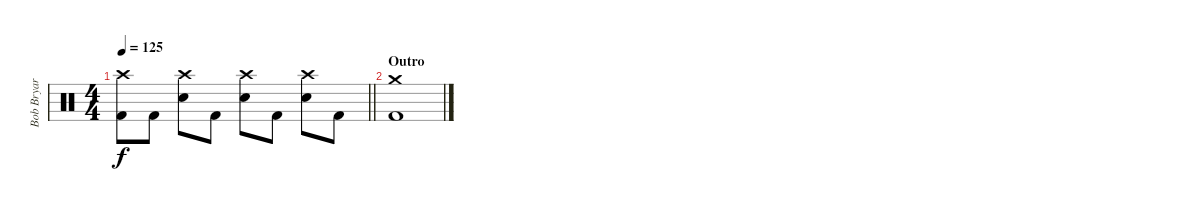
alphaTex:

\track ("Bob Bryar" "Bob Bryar") {instrument percussion}
\staff {score}
\articulation defaults
\ts (4 4)
\tempo 125
\clef neutral
\barLineRight lightlight
\ks c
("Crash high (hit)" "Kick (hit) 2").8{dy f} "Kick (hit) 2".8 ("Crash high (hit)" "Electric Snare (hit)").8 "Kick (hit) 2".8 ("Crash high (hit)" "Electric Snare (hit)").8 "Kick (hit) 2".8 ("Crash high (hit)" "Electric Snare (hit)").8 "Kick (hit) 2".8 |
\section ("" "Outro")
("Crash medium (hit)" "Kick (hit) 2").1
